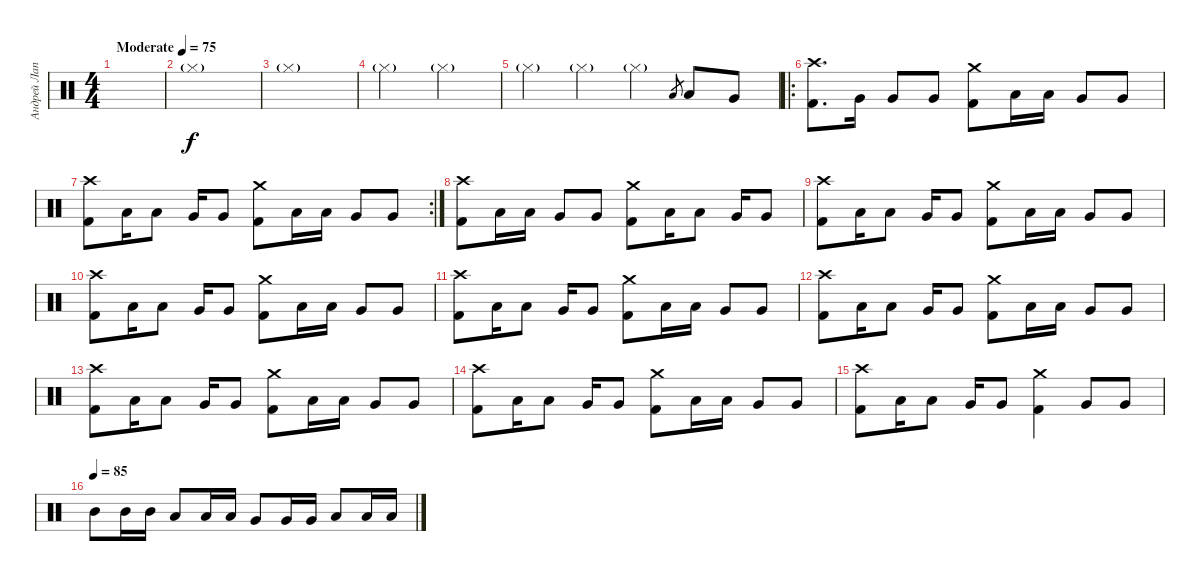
\track ("Андрей Лаптев" "Андрей Лап") {instrument percussion}
\staff {score}
\articulation defaults
\ts (4 4)
\tempo (75 "Moderate")
\clef neutral
\ks c
|
"Hi-Hat (closed)"{g}.1 |
"Hi-Hat (closed)"{g}.1 |
"Hi-Hat (closed)"{g}.2 "Hi-Hat (closed)"{g}.2 |
"Hi-Hat (closed)"{g}.4 "Hi-Hat (closed)"{g}.4 "Hi-Hat (closed)"{g}.4 "Low Tom (hit)".8{gr} "Low Tom (hit)".8{dy f} "Very Low Tom (hit)".8 |
\ro
("Crash high (hit)" "Kick (hit) 2").8{d} "Very Low Tom (hit)".16 "Very Low Tom (hit)".8 "Very Low Tom (hit)".8 ("Crash medium (hit)" "Kick (hit) 2").8 "Low Tom (hit)".16 "Low Tom (hit)".16 "Very Low Tom (hit)".8 "Very Low Tom (hit)".8 |
\rc 2
("Crash high (hit)" "Kick (hit) 2").8 "Low Tom (hit)".16 "Low Tom (hit)".8 "Very Low Tom (hit)".16 "Very Low Tom (hit)".8 ("Crash medium (hit)" "Kick (hit) 2").8 "Low Tom (hit)".16 "Low Tom (hit)".16 "Very Low Tom (hit)".8 "Very Low Tom (hit)".8 |
("Crash high (hit)" "Kick (hit) 2").8 "Low Tom (hit)".16 "Low Tom (hit)".16 "Very Low Tom (hit)".8 "Very Low Tom (hit)".8 ("Crash medium (hit)" "Kick (hit) 2").8 "Low Tom (hit)".16 "Low Tom (hit)".8 "Very Low Tom (hit)".16 "Very Low Tom (hit)".8 |
("Crash high (hit)" "Kick (hit) 2").8 "Low Tom (hit)".16 "Low Tom (hit)".8 "Very Low Tom (hit)".16 "Very Low Tom (hit)".8 ("Crash medium (hit)" "Kick (hit) 2").8 "Low Tom (hit)".16 "Low Tom (hit)".16 "Very Low Tom (hit)".8 "Very Low Tom (hit)".8 |
("Crash high (hit)" "Kick (hit) 2").8 "Low Tom (hit)".16 "Low Tom (hit)".8 "Very Low Tom (hit)".16 "Very Low Tom (hit)".8 ("Crash medium (hit)" "Kick (hit) 2").8 "Low Tom (hit)".16 "Low Tom (hit)".16 "Very Low Tom (hit)".8 "Very Low Tom (hit)".8 |
("Crash high (hit)" "Kick (hit) 2").8 "Low Tom (hit)".16 "Low Tom (hit)".8 "Very Low Tom (hit)".16 "Very Low Tom (hit)".8 ("Crash medium (hit)" "Kick (hit) 2").8 "Low Tom (hit)".16 "Low Tom (hit)".16 "Very Low Tom (hit)".8 "Very Low Tom (hit)".8 |
("Crash high (hit)" "Kick (hit) 2").8 "Low Tom (hit)".16 "Low Tom (hit)".8 "Very Low Tom (hit)".16 "Very Low Tom (hit)".8 ("Crash medium (hit)" "Kick (hit) 2").8 "Low Tom (hit)".16 "Low Tom (hit)".16 "Very Low Tom (hit)".8 "Very Low Tom (hit)".8 |
("Crash high (hit)" "Kick (hit) 2").8 "Low Tom (hit)".16 "Low Tom (hit)".8 "Very Low Tom (hit)".16 "Very Low Tom (hit)".8 ("Crash medium (hit)" "Kick (hit) 2").8 "Low Tom (hit)".16 "Low Tom (hit)".16 "Very Low Tom (hit)".8 "Very Low Tom (hit)".8 |
("Crash high (hit)" "Kick (hit) 2").8 "Low Tom (hit)".16 "Low Tom (hit)".8 "Very Low Tom (hit)".16 "Very Low Tom (hit)".8 ("Crash medium (hit)" "Kick (hit) 2").8 "Low Tom (hit)".16 "Low Tom (hit)".16 "Very Low Tom (hit)".8 "Very Low Tom (hit)".8 |
("Crash high (hit)" "Kick (hit) 2").8 "Low Tom (hit)".16 "Low Tom (hit)".8 "Very Low Tom (hit)".16 "Very Low Tom (hit)".8 ("Crash medium (hit)" "Kick (hit) 2").4 "Very Low Tom (hit)".8 "Very Low Tom (hit)".8 |
\tempo (85)
"Mid Tom (hit)".8 "Mid Tom (hit)".16 "Mid Tom (hit)".16 "Low Tom (hit)".8 "Low Tom (hit)".16 "Low Tom (hit)".16 "Very Low Tom (hit)".8 "Very Low Tom (hit)".16 "Very Low Tom (hit)".16 "Low Floor Tom (hit)".8 "Low Floor Tom (hit)".16 "Low Floor Tom (hit)".16
